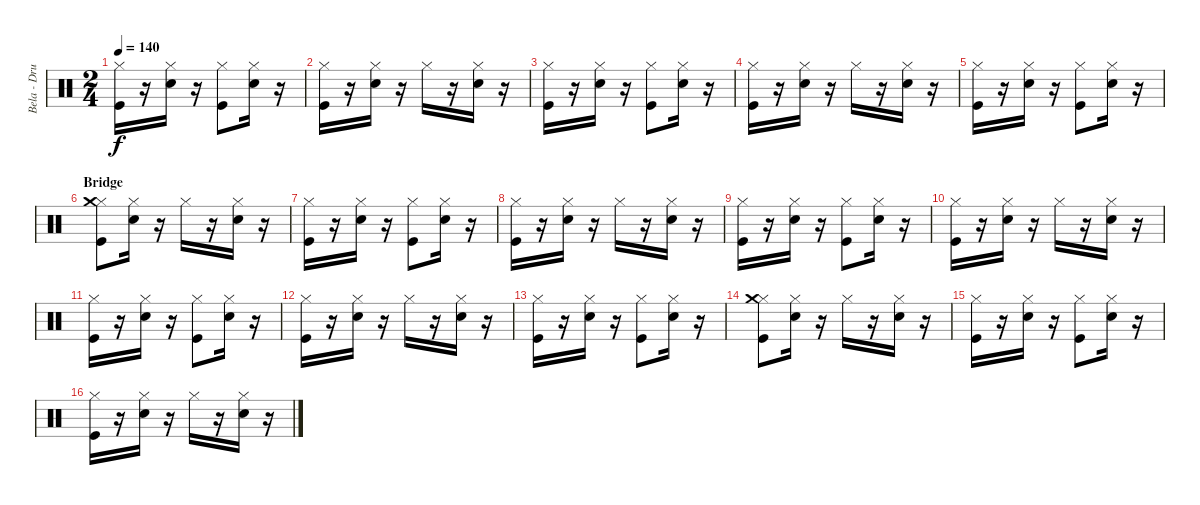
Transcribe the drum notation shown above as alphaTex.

\track ("Bela - Drums" "Bela - Dru") {instrument percussion}
\staff {score}
\articulation defaults
\ts (2 4)
\tempo 140
\clef neutral
\ks c
("Kick (hit)" "Hi-Hat (closed)").16{dy f} r.16 ("Electric Snare (hit)" "Hi-Hat (closed)").16 r.16 ("Hi-Hat (closed)" "Kick (hit)").8 ("Electric Snare (hit)" "Hi-Hat (closed)").16 r.16 |
("Kick (hit)" "Hi-Hat (closed)").16 r.16 ("Electric Snare (hit)" "Hi-Hat (closed)").16 r.16 "Hi-Hat (closed)".16 r.16 ("Electric Snare (hit)" "Hi-Hat (closed)").16 r.16 |
("Kick (hit)" "Hi-Hat (closed)").16 r.16 ("Electric Snare (hit)" "Hi-Hat (closed)").16 r.16 ("Hi-Hat (closed)" "Kick (hit)").8 ("Electric Snare (hit)" "Hi-Hat (closed)").16 r.16 |
("Kick (hit)" "Hi-Hat (closed)").16 r.16 ("Electric Snare (hit)" "Hi-Hat (closed)").16 r.16 "Hi-Hat (closed)".16 r.16 ("Electric Snare (hit)" "Hi-Hat (closed)").16 r.16 |
("Kick (hit)" "Hi-Hat (closed)").16 r.16 ("Electric Snare (hit)" "Hi-Hat (closed)").16 r.16 ("Hi-Hat (closed)" "Kick (hit)").8 ("Electric Snare (hit)" "Hi-Hat (closed)").16 r.16 |
\section ("" "Bridge")
("Kick (hit)" "Hi-Hat (closed)" "Crash medium (hit)").8 ("Electric Snare (hit)" "Hi-Hat (closed)").16 r.16 "Hi-Hat (closed)".16 r.16 ("Electric Snare (hit)" "Hi-Hat (closed)").16 r.16 |
("Kick (hit)" "Hi-Hat (closed)").16 r.16 ("Electric Snare (hit)" "Hi-Hat (closed)").16 r.16 ("Hi-Hat (closed)" "Kick (hit)").8 ("Electric Snare (hit)" "Hi-Hat (closed)").16 r.16 |
("Kick (hit)" "Hi-Hat (closed)").16 r.16 ("Electric Snare (hit)" "Hi-Hat (closed)").16 r.16 "Hi-Hat (closed)".16 r.16 ("Electric Snare (hit)" "Hi-Hat (closed)").16 r.16 |
("Kick (hit)" "Hi-Hat (closed)").16 r.16 ("Electric Snare (hit)" "Hi-Hat (closed)").16 r.16 ("Hi-Hat (closed)" "Kick (hit)").8 ("Electric Snare (hit)" "Hi-Hat (closed)").16 r.16 |
("Kick (hit)" "Hi-Hat (closed)").16 r.16 ("Electric Snare (hit)" "Hi-Hat (closed)").16 r.16 "Hi-Hat (closed)".16 r.16 ("Electric Snare (hit)" "Hi-Hat (closed)").16 r.16 |
("Kick (hit)" "Hi-Hat (closed)").16 r.16 ("Electric Snare (hit)" "Hi-Hat (closed)").16 r.16 ("Hi-Hat (closed)" "Kick (hit)").8 ("Electric Snare (hit)" "Hi-Hat (closed)").16 r.16 |
("Kick (hit)" "Hi-Hat (closed)").16 r.16 ("Electric Snare (hit)" "Hi-Hat (closed)").16 r.16 "Hi-Hat (closed)".16 r.16 ("Electric Snare (hit)" "Hi-Hat (closed)").16 r.16 |
("Kick (hit)" "Hi-Hat (closed)").16 r.16 ("Electric Snare (hit)" "Hi-Hat (closed)").16 r.16 ("Hi-Hat (closed)" "Kick (hit)").8 ("Electric Snare (hit)" "Hi-Hat (closed)").16 r.16 |
("Kick (hit)" "Hi-Hat (closed)" "Crash medium (hit)").8 ("Electric Snare (hit)" "Hi-Hat (closed)").16 r.16 "Hi-Hat (closed)".16 r.16 ("Electric Snare (hit)" "Hi-Hat (closed)").16 r.16 |
("Kick (hit)" "Hi-Hat (closed)").16 r.16 ("Electric Snare (hit)" "Hi-Hat (closed)").16 r.16 ("Hi-Hat (closed)" "Kick (hit)").8 ("Electric Snare (hit)" "Hi-Hat (closed)").16 r.16 |
("Kick (hit)" "Hi-Hat (closed)").16 r.16 ("Electric Snare (hit)" "Hi-Hat (closed)").16 r.16 "Hi-Hat (closed)".16 r.16 ("Electric Snare (hit)" "Hi-Hat (closed)").16 r.16
